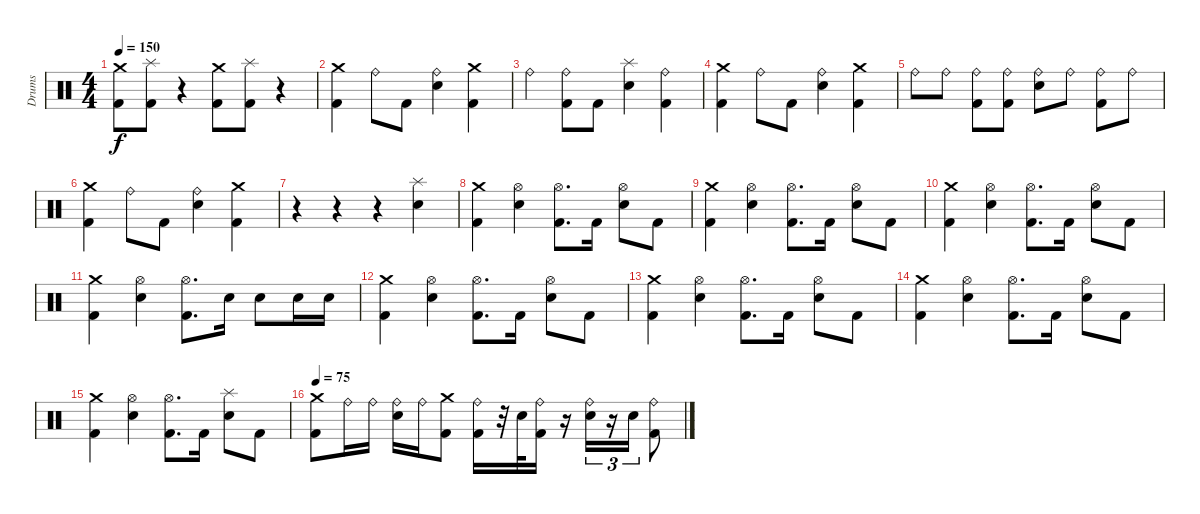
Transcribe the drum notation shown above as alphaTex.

\track ("Drums" "Drums") {instrument percussion}
\staff {score}
\articulation defaults
\ts (4 4)
\tempo 150
\clef neutral
\ks c
("Crash medium (hit)" "Kick (hit) 2").8{dy f} ("Splash (hit)" "Kick (hit) 2").8 r.4 ("Crash medium (hit)" "Kick (hit) 2").8 ("Splash (hit)" "Kick (hit) 2").8 r.4 |
("Crash medium (hit)" "Kick (hit) 2").4 "Ride (bell)".8 "Kick (hit) 2".8 ("Ride (bell)" "Electric Snare (hit)").4 ("Crash medium (hit)" "Kick (hit) 2").4 |
"Ride (bell)".4 ("Ride (bell)" "Kick (hit) 2").8 "Kick (hit) 2".8 ("Splash (hit)" "Electric Snare (hit)").4 ("Ride (bell)" "Kick (hit) 2").4 |
("Crash medium (hit)" "Kick (hit) 2").4 "Ride (bell)".8 "Kick (hit) 2".8 ("Ride (bell)" "Electric Snare (hit)").4 ("Crash medium (hit)" "Kick (hit) 2").4 |
"Ride (bell)".8 "Ride (bell)".8 ("Ride (bell)" "Kick (hit) 2").8 ("Ride (bell)" "Kick (hit) 2").8 ("Ride (bell)" "Electric Snare (hit)").8 "Ride (bell)".8 ("Ride (bell)" "Kick (hit) 2").8 "Ride (bell)".8 |
("Crash medium (hit)" "Kick (hit) 2").4 "Ride (bell)".8 "Kick (hit) 2".8 ("Ride (bell)" "Electric Snare (hit)").4 ("Crash medium (hit)" "Kick (hit) 2").4 |
r.4 r.4 r.4 ("Splash (hit)" "Electric Snare (hit)").4 |
("Crash medium (hit)" "Kick (hit) 2").4 ("Hi-Hat (open)" "Electric Snare (hit)").4 ("Hi-Hat (open)" "Kick (hit) 2").8{d} "Kick (hit) 2".16 ("Hi-Hat (open)" "Electric Snare (hit)").8 "Kick (hit) 2".8 |
("Crash medium (hit)" "Kick (hit) 2").4 ("Hi-Hat (open)" "Electric Snare (hit)").4 ("Hi-Hat (open)" "Kick (hit) 2").8{d} "Kick (hit) 2".16 ("Hi-Hat (open)" "Electric Snare (hit)").8 "Kick (hit) 2".8 |
("Crash medium (hit)" "Kick (hit) 2").4 ("Hi-Hat (open)" "Electric Snare (hit)").4 ("Hi-Hat (open)" "Kick (hit) 2").8{d} "Kick (hit) 2".16 ("Hi-Hat (open)" "Electric Snare (hit)").8 "Kick (hit) 2".8 |
("Crash medium (hit)" "Kick (hit) 2").4 ("Hi-Hat (open)" "Electric Snare (hit)").4 ("Hi-Hat (open)" "Kick (hit) 2").8{d} "Electric Snare (hit)".16 "Electric Snare (hit)".8 "Electric Snare (hit)".16 "Electric Snare (hit)".16 |
("Crash medium (hit)" "Kick (hit) 2").4 ("Hi-Hat (open)" "Electric Snare (hit)").4 ("Hi-Hat (open)" "Kick (hit) 2").8{d} "Kick (hit) 2".16 ("Hi-Hat (open)" "Electric Snare (hit)").8 "Kick (hit) 2".8 |
("Crash medium (hit)" "Kick (hit) 2").4 ("Hi-Hat (open)" "Electric Snare (hit)").4 ("Hi-Hat (open)" "Kick (hit) 2").8{d} "Kick (hit) 2".16 ("Hi-Hat (open)" "Electric Snare (hit)").8 "Kick (hit) 2".8 |
("Crash medium (hit)" "Kick (hit) 2").4 ("Hi-Hat (open)" "Electric Snare (hit)").4 ("Hi-Hat (open)" "Kick (hit) 2").8{d} "Kick (hit) 2".16 ("Hi-Hat (open)" "Electric Snare (hit)").8 "Kick (hit) 2".8 |
("Crash medium (hit)" "Kick (hit) 2").4 ("Hi-Hat (open)" "Electric Snare (hit)").4 ("Hi-Hat (open)" "Kick (hit) 2").8{d} "Kick (hit) 2".16 ("Splash (hit)" "Electric Snare (hit)").8 "Kick (hit) 2".8 |
\tempo 75
("Crash medium (hit)" "Kick (hit) 2").8 "Ride (bell)".16 "Ride (bell)".16 ("Ride (bell)" "Electric Snare (hit)").16 "Ride (bell)".16 ("Crash medium (hit)" "Kick (hit) 2").8 ("Ride (bell)" "Kick (hit) 2").16 r.32 "Electric Snare (hit)".32 ("Ride (bell)" "Kick (hit) 2").16 r.16 ("Ride (bell)" "Electric Snare (hit)").16{tu (3 2)} r.16{tu (3 2)} "Electric Snare (hit)".16{tu (3 2)} ("Ride (bell)" "Kick (hit) 2").8
